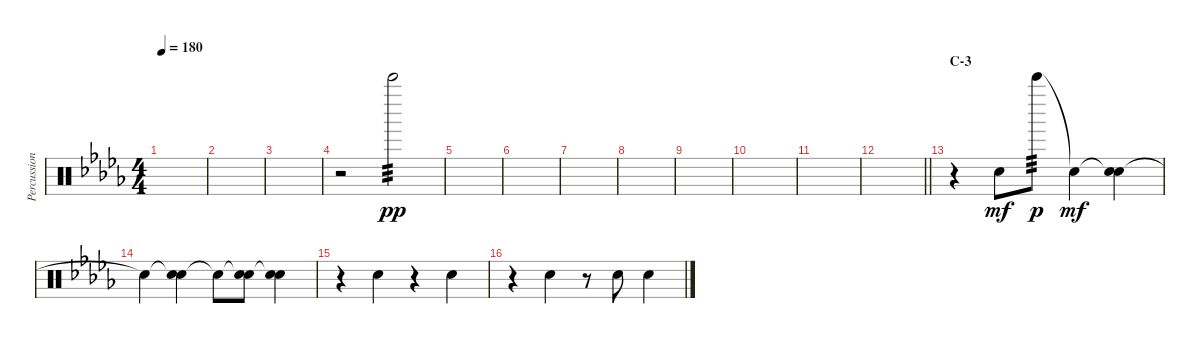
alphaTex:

\track ("Percussion I (Tainaka Ritsu)" "Percussion") {instrument percussion}
\staff {score}
\articulation defaults
\ts (4 4)
\tempo 180
\clef neutral
\ks db
|
|
|
r.2 "Bell Tree (hit)".2{tp 3 dy pp} |
|
|
|
|
|
|
|
\barLineRight lightlight
|
\section ("" "C-3")
r.4 "Hand Clap (hit)".8{dy mf} "Bell Tree (hit)".8{tp 3 dy p} "Snare (hit)"{t}.4{dy mf} ("Snare (hit)"{t} "Hand Clap (hit)").4 |
"Snare (hit)"{t}.4 ("Snare (hit)"{t} "Hand Clap (hit)").4 "Snare (hit)"{t}.8 ("Snare (hit)"{t} "Hand Clap (hit)").8 ("Snare (hit)"{t} "Hand Clap (hit)").4 |
r.4 "Hand Clap (hit)".4 r.4 "Hand Clap (hit)".4 |
r.4 "Hand Clap (hit)".4 r.8 "Hand Clap (hit)".8 "Hand Clap (hit)".4
